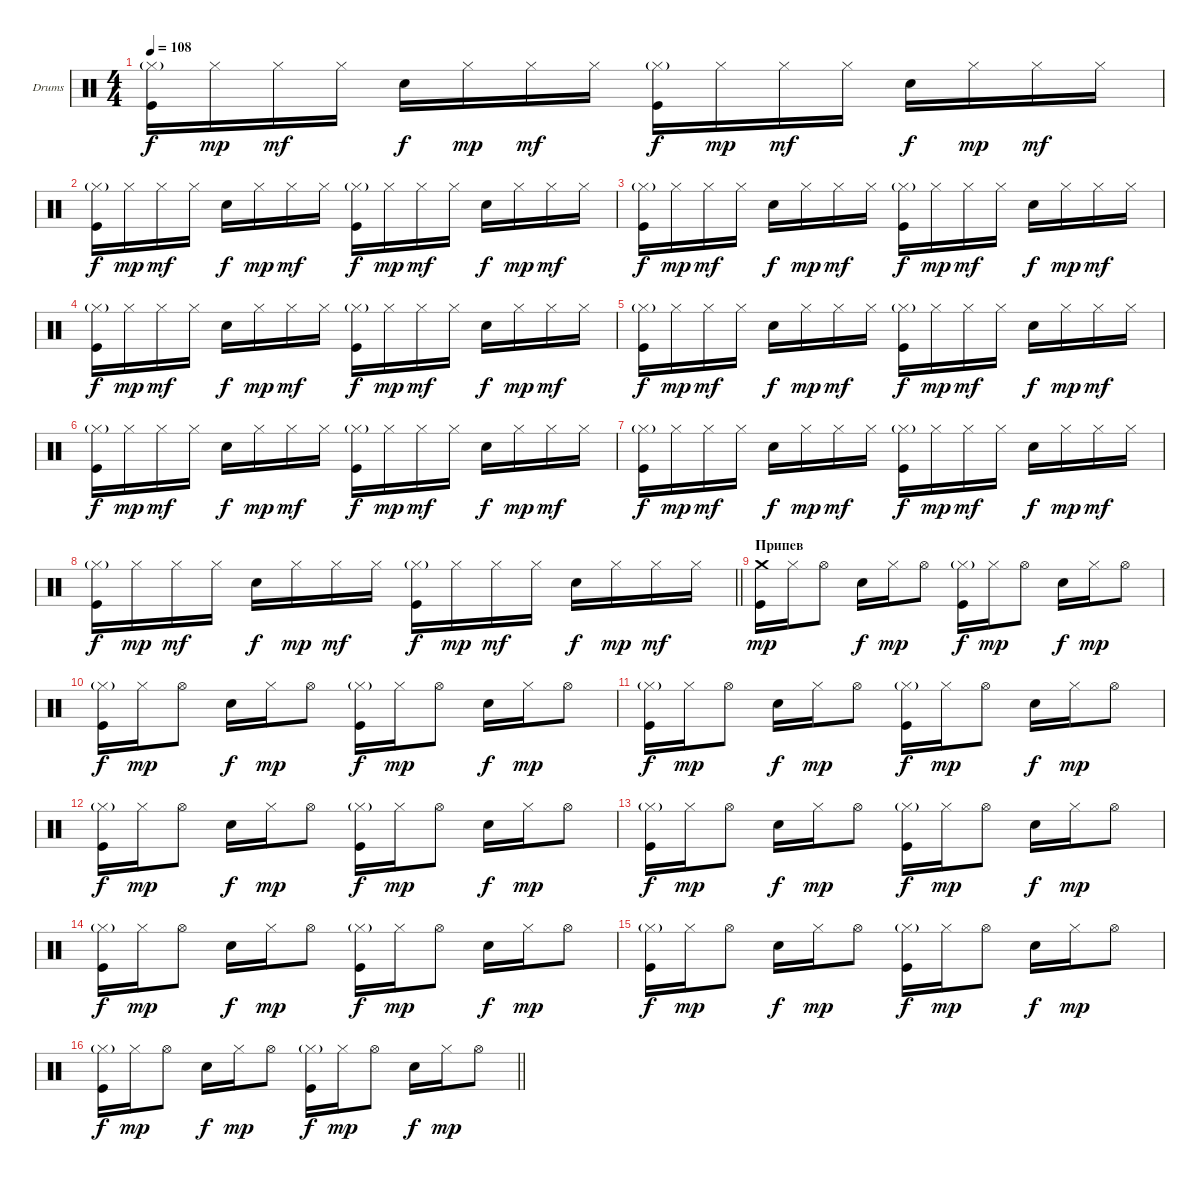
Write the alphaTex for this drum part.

\bracketExtendMode groupsimilarinstruments
\firstSystemTrackNameOrientation horizontal
\otherSystemsTrackNameOrientation horizontal
\track ("Е. Кулаков" "Drums") {instrument percussion}
\staff {score}
\articulation defaults
\ts (4 4)
\tempo 108
\clef neutral
\ks c
("Hi-Hat (closed)"{g} "Kick (hit)").16{dy f} "Hi-Hat (closed)".16{dy mp} "Hi-Hat (closed)".16{dy mf} "Hi-Hat (closed)".16 "Snare (hit) 2".16{dy f} "Hi-Hat (closed)".16{dy mp} "Hi-Hat (closed)".16{dy mf} "Hi-Hat (closed)".16 ("Hi-Hat (closed)"{g} "Kick (hit)").16{dy f} "Hi-Hat (closed)".16{dy mp} "Hi-Hat (closed)".16{dy mf} "Hi-Hat (closed)".16 "Snare (hit) 2".16{dy f} "Hi-Hat (closed)".16{dy mp} "Hi-Hat (closed)".16{dy mf} "Hi-Hat (closed)".16 |
("Hi-Hat (closed)"{g} "Kick (hit)").16{dy f} "Hi-Hat (closed)".16{dy mp} "Hi-Hat (closed)".16{dy mf} "Hi-Hat (closed)".16 "Snare (hit) 2".16{dy f} "Hi-Hat (closed)".16{dy mp} "Hi-Hat (closed)".16{dy mf} "Hi-Hat (closed)".16 ("Hi-Hat (closed)"{g} "Kick (hit)").16{dy f} "Hi-Hat (closed)".16{dy mp} "Hi-Hat (closed)".16{dy mf} "Hi-Hat (closed)".16 "Snare (hit) 2".16{dy f} "Hi-Hat (closed)".16{dy mp} "Hi-Hat (closed)".16{dy mf} "Hi-Hat (closed)".16 |
("Hi-Hat (closed)"{g} "Kick (hit)").16{dy f} "Hi-Hat (closed)".16{dy mp} "Hi-Hat (closed)".16{dy mf} "Hi-Hat (closed)".16 "Snare (hit) 2".16{dy f} "Hi-Hat (closed)".16{dy mp} "Hi-Hat (closed)".16{dy mf} "Hi-Hat (closed)".16 ("Hi-Hat (closed)"{g} "Kick (hit)").16{dy f} "Hi-Hat (closed)".16{dy mp} "Hi-Hat (closed)".16{dy mf} "Hi-Hat (closed)".16 "Snare (hit) 2".16{dy f} "Hi-Hat (closed)".16{dy mp} "Hi-Hat (closed)".16{dy mf} "Hi-Hat (closed)".16 |
("Hi-Hat (closed)"{g} "Kick (hit)").16{dy f} "Hi-Hat (closed)".16{dy mp} "Hi-Hat (closed)".16{dy mf} "Hi-Hat (closed)".16 "Snare (hit) 2".16{dy f} "Hi-Hat (closed)".16{dy mp} "Hi-Hat (closed)".16{dy mf} "Hi-Hat (closed)".16 ("Hi-Hat (closed)"{g} "Kick (hit)").16{dy f} "Hi-Hat (closed)".16{dy mp} "Hi-Hat (closed)".16{dy mf} "Hi-Hat (closed)".16 "Snare (hit) 2".16{dy f} "Hi-Hat (closed)".16{dy mp} "Hi-Hat (closed)".16{dy mf} "Hi-Hat (closed)".16 |
("Hi-Hat (closed)"{g} "Kick (hit)").16{dy f} "Hi-Hat (closed)".16{dy mp} "Hi-Hat (closed)".16{dy mf} "Hi-Hat (closed)".16 "Snare (hit) 2".16{dy f} "Hi-Hat (closed)".16{dy mp} "Hi-Hat (closed)".16{dy mf} "Hi-Hat (closed)".16 ("Hi-Hat (closed)"{g} "Kick (hit)").16{dy f} "Hi-Hat (closed)".16{dy mp} "Hi-Hat (closed)".16{dy mf} "Hi-Hat (closed)".16 "Snare (hit) 2".16{dy f} "Hi-Hat (closed)".16{dy mp} "Hi-Hat (closed)".16{dy mf} "Hi-Hat (closed)".16 |
("Hi-Hat (closed)"{g} "Kick (hit)").16{dy f} "Hi-Hat (closed)".16{dy mp} "Hi-Hat (closed)".16{dy mf} "Hi-Hat (closed)".16 "Snare (hit) 2".16{dy f} "Hi-Hat (closed)".16{dy mp} "Hi-Hat (closed)".16{dy mf} "Hi-Hat (closed)".16 ("Hi-Hat (closed)"{g} "Kick (hit)").16{dy f} "Hi-Hat (closed)".16{dy mp} "Hi-Hat (closed)".16{dy mf} "Hi-Hat (closed)".16 "Snare (hit) 2".16{dy f} "Hi-Hat (closed)".16{dy mp} "Hi-Hat (closed)".16{dy mf} "Hi-Hat (closed)".16 |
("Hi-Hat (closed)"{g} "Kick (hit)").16{dy f} "Hi-Hat (closed)".16{dy mp} "Hi-Hat (closed)".16{dy mf} "Hi-Hat (closed)".16 "Snare (hit) 2".16{dy f} "Hi-Hat (closed)".16{dy mp} "Hi-Hat (closed)".16{dy mf} "Hi-Hat (closed)".16 ("Hi-Hat (closed)"{g} "Kick (hit)").16{dy f} "Hi-Hat (closed)".16{dy mp} "Hi-Hat (closed)".16{dy mf} "Hi-Hat (closed)".16 "Snare (hit) 2".16{dy f} "Hi-Hat (closed)".16{dy mp} "Hi-Hat (closed)".16{dy mf} "Hi-Hat (closed)".16 |
\barLineRight lightlight
("Hi-Hat (closed)"{g} "Kick (hit)").16{dy f} "Hi-Hat (closed)".16{dy mp} "Hi-Hat (closed)".16{dy mf} "Hi-Hat (closed)".16 "Snare (hit) 2".16{dy f} "Hi-Hat (closed)".16{dy mp} "Hi-Hat (closed)".16{dy mf} "Hi-Hat (closed)".16 ("Hi-Hat (closed)"{g} "Kick (hit)").16{dy f} "Hi-Hat (closed)".16{dy mp} "Hi-Hat (closed)".16{dy mf} "Hi-Hat (closed)".16 "Snare (hit) 2".16{dy f} "Hi-Hat (closed)".16{dy mp} "Hi-Hat (closed)".16{dy mf} "Hi-Hat (closed)".16 |
\section ("" "Припев")
("Crash medium (hit)" "Kick (hit)").16{dy mp} "Hi-Hat (closed)".16 "Hi-Hat (open)".8 "Snare (hit) 2".16{dy f} "Hi-Hat (closed)".16{dy mp} "Hi-Hat (open)".8 ("Hi-Hat (closed)"{g} "Kick (hit)").16{dy f} "Hi-Hat (closed)".16{dy mp} "Hi-Hat (open)".8 "Snare (hit) 2".16{dy f} "Hi-Hat (closed)".16{dy mp} "Hi-Hat (open)".8 |
("Hi-Hat (closed)"{g} "Kick (hit)").16{dy f} "Hi-Hat (closed)".16{dy mp} "Hi-Hat (open)".8 "Snare (hit) 2".16{dy f} "Hi-Hat (closed)".16{dy mp} "Hi-Hat (open)".8 ("Hi-Hat (closed)"{g} "Kick (hit)").16{dy f} "Hi-Hat (closed)".16{dy mp} "Hi-Hat (open)".8 "Snare (hit) 2".16{dy f} "Hi-Hat (closed)".16{dy mp} "Hi-Hat (open)".8 |
("Hi-Hat (closed)"{g} "Kick (hit)").16{dy f} "Hi-Hat (closed)".16{dy mp} "Hi-Hat (open)".8 "Snare (hit) 2".16{dy f} "Hi-Hat (closed)".16{dy mp} "Hi-Hat (open)".8 ("Hi-Hat (closed)"{g} "Kick (hit)").16{dy f} "Hi-Hat (closed)".16{dy mp} "Hi-Hat (open)".8 "Snare (hit) 2".16{dy f} "Hi-Hat (closed)".16{dy mp} "Hi-Hat (open)".8 |
("Hi-Hat (closed)"{g} "Kick (hit)").16{dy f} "Hi-Hat (closed)".16{dy mp} "Hi-Hat (open)".8 "Snare (hit) 2".16{dy f} "Hi-Hat (closed)".16{dy mp} "Hi-Hat (open)".8 ("Hi-Hat (closed)"{g} "Kick (hit)").16{dy f} "Hi-Hat (closed)".16{dy mp} "Hi-Hat (open)".8 "Snare (hit) 2".16{dy f} "Hi-Hat (closed)".16{dy mp} "Hi-Hat (open)".8 |
("Hi-Hat (closed)"{g} "Kick (hit)").16{dy f} "Hi-Hat (closed)".16{dy mp} "Hi-Hat (open)".8 "Snare (hit) 2".16{dy f} "Hi-Hat (closed)".16{dy mp} "Hi-Hat (open)".8 ("Hi-Hat (closed)"{g} "Kick (hit)").16{dy f} "Hi-Hat (closed)".16{dy mp} "Hi-Hat (open)".8 "Snare (hit) 2".16{dy f} "Hi-Hat (closed)".16{dy mp} "Hi-Hat (open)".8 |
("Hi-Hat (closed)"{g} "Kick (hit)").16{dy f} "Hi-Hat (closed)".16{dy mp} "Hi-Hat (open)".8 "Snare (hit) 2".16{dy f} "Hi-Hat (closed)".16{dy mp} "Hi-Hat (open)".8 ("Hi-Hat (closed)"{g} "Kick (hit)").16{dy f} "Hi-Hat (closed)".16{dy mp} "Hi-Hat (open)".8 "Snare (hit) 2".16{dy f} "Hi-Hat (closed)".16{dy mp} "Hi-Hat (open)".8 |
("Hi-Hat (closed)"{g} "Kick (hit)").16{dy f} "Hi-Hat (closed)".16{dy mp} "Hi-Hat (open)".8 "Snare (hit) 2".16{dy f} "Hi-Hat (closed)".16{dy mp} "Hi-Hat (open)".8 ("Hi-Hat (closed)"{g} "Kick (hit)").16{dy f} "Hi-Hat (closed)".16{dy mp} "Hi-Hat (open)".8 "Snare (hit) 2".16{dy f} "Hi-Hat (closed)".16{dy mp} "Hi-Hat (open)".8 |
\barLineRight lightlight
("Hi-Hat (closed)"{g} "Kick (hit)").16{dy f} "Hi-Hat (closed)".16{dy mp} "Hi-Hat (open)".8 "Snare (hit) 2".16{dy f} "Hi-Hat (closed)".16{dy mp} "Hi-Hat (open)".8 ("Hi-Hat (closed)"{g} "Kick (hit)").16{dy f} "Hi-Hat (closed)".16{dy mp} "Hi-Hat (open)".8 "Snare (hit) 2".16{dy f} "Hi-Hat (closed)".16{dy mp} "Hi-Hat (open)".8
